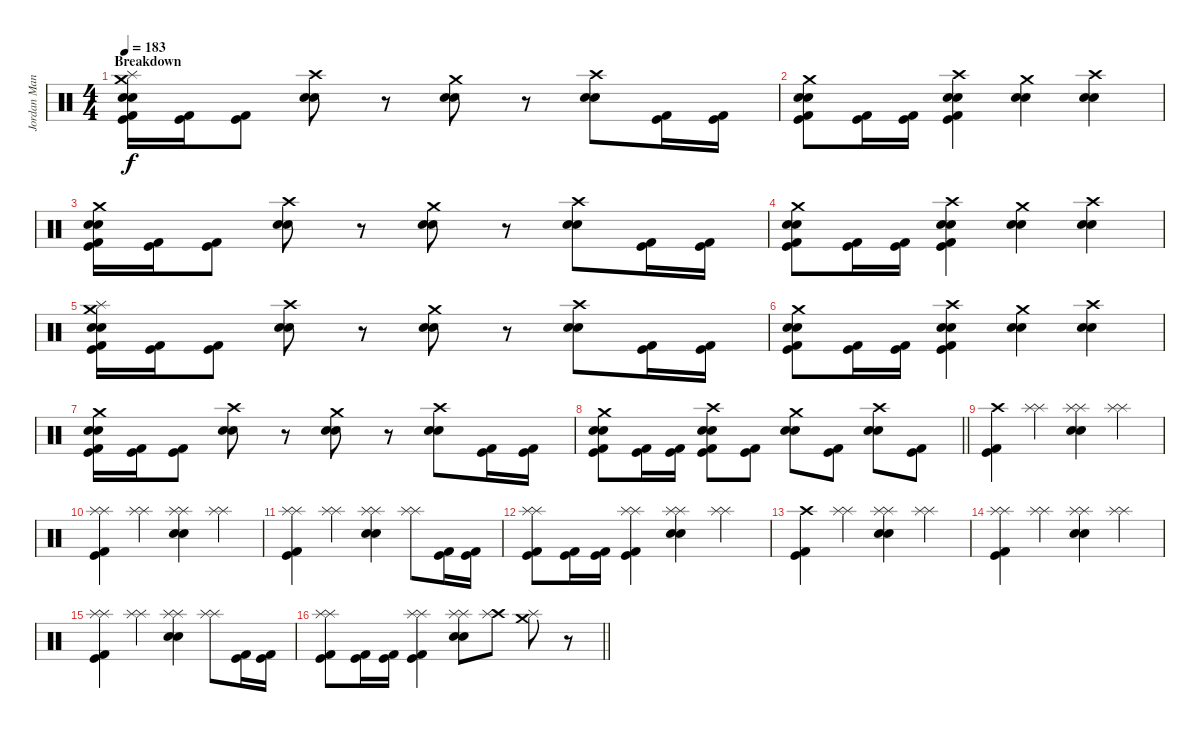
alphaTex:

\track ("Jordan Mancino" "Jordan Man") {instrument percussion}
\staff {score}
\articulation defaults
\ts (4 4)
\section ("" "Breakdown")
\tempo 183
\clef neutral
\ks c
("Splash (hit)" "Crash medium (hit)" "Electric Snare (hit)" "Snare (hit) 2" "Kick (hit)" "Kick (hit) 2").16{dy f} ("Kick (hit)" "Kick (hit) 2").16 ("Kick (hit)" "Kick (hit) 2").8 ("Crash high (hit)" "Electric Snare (hit)" "Snare (hit) 2").8 r.8 ("Crash medium (hit)" "Electric Snare (hit)" "Snare (hit) 2").8 r.8 ("Crash high (hit)" "Electric Snare (hit)" "Snare (hit) 2").8 ("Kick (hit)" "Kick (hit) 2").16 ("Kick (hit)" "Kick (hit) 2").16 |
("Crash medium (hit)" "Electric Snare (hit)" "Snare (hit) 2" "Kick (hit)" "Kick (hit) 2").8 ("Kick (hit)" "Kick (hit) 2").16 ("Kick (hit)" "Kick (hit) 2").16 ("Crash high (hit)" "Electric Snare (hit)" "Snare (hit) 2" "Kick (hit)" "Kick (hit) 2").4 ("Crash medium (hit)" "Electric Snare (hit)" "Snare (hit) 2").4 ("Crash high (hit)" "Electric Snare (hit)" "Snare (hit) 2").4 |
("Crash medium (hit)" "Electric Snare (hit)" "Snare (hit) 2" "Kick (hit)" "Kick (hit) 2").16 ("Kick (hit)" "Kick (hit) 2").16 ("Kick (hit)" "Kick (hit) 2").8 ("Crash high (hit)" "Electric Snare (hit)" "Snare (hit) 2").8 r.8 ("Crash medium (hit)" "Electric Snare (hit)" "Snare (hit) 2").8 r.8 ("Crash high (hit)" "Electric Snare (hit)" "Snare (hit) 2").8 ("Kick (hit)" "Kick (hit) 2").16 ("Kick (hit)" "Kick (hit) 2").16 |
("Crash medium (hit)" "Electric Snare (hit)" "Snare (hit) 2" "Kick (hit)" "Kick (hit) 2").8 ("Kick (hit)" "Kick (hit) 2").16 ("Kick (hit)" "Kick (hit) 2").16 ("Crash high (hit)" "Electric Snare (hit)" "Snare (hit) 2" "Kick (hit)" "Kick (hit) 2").4 ("Crash medium (hit)" "Electric Snare (hit)" "Snare (hit) 2").4 ("Crash high (hit)" "Electric Snare (hit)" "Snare (hit) 2").4 |
("Splash (hit)" "Crash medium (hit)" "Electric Snare (hit)" "Snare (hit) 2" "Kick (hit)" "Kick (hit) 2").16 ("Kick (hit)" "Kick (hit) 2").16 ("Kick (hit)" "Kick (hit) 2").8 ("Crash high (hit)" "Electric Snare (hit)" "Snare (hit) 2").8 r.8 ("Crash medium (hit)" "Electric Snare (hit)" "Snare (hit) 2").8 r.8 ("Crash high (hit)" "Electric Snare (hit)" "Snare (hit) 2").8 ("Kick (hit)" "Kick (hit) 2").16 ("Kick (hit)" "Kick (hit) 2").16 |
("Crash medium (hit)" "Electric Snare (hit)" "Snare (hit) 2" "Kick (hit)" "Kick (hit) 2").8 ("Kick (hit)" "Kick (hit) 2").16 ("Kick (hit)" "Kick (hit) 2").16 ("Crash high (hit)" "Electric Snare (hit)" "Snare (hit) 2" "Kick (hit)" "Kick (hit) 2").4 ("Crash medium (hit)" "Electric Snare (hit)" "Snare (hit) 2").4 ("Crash high (hit)" "Electric Snare (hit)" "Snare (hit) 2").4 |
("Crash medium (hit)" "Electric Snare (hit)" "Snare (hit) 2" "Kick (hit)" "Kick (hit) 2").16 ("Kick (hit)" "Kick (hit) 2").16 ("Kick (hit)" "Kick (hit) 2").8 ("Crash high (hit)" "Electric Snare (hit)" "Snare (hit) 2").8 r.8 ("Crash medium (hit)" "Electric Snare (hit)" "Snare (hit) 2").8 r.8 ("Crash high (hit)" "Electric Snare (hit)" "Snare (hit) 2").8 ("Kick (hit)" "Kick (hit) 2").16 ("Kick (hit)" "Kick (hit) 2").16 |
\barLineRight lightlight
("Crash medium (hit)" "Electric Snare (hit)" "Snare (hit) 2" "Kick (hit)" "Kick (hit) 2").8 ("Kick (hit)" "Kick (hit) 2").16 ("Kick (hit)" "Kick (hit) 2").16 ("Crash high (hit)" "Electric Snare (hit)" "Snare (hit) 2" "Kick (hit)" "Kick (hit) 2").8 ("Kick (hit)" "Kick (hit) 2").8 ("Crash medium (hit)" "Electric Snare (hit)" "Snare (hit) 2").8 ("Kick (hit)" "Kick (hit) 2").8 ("Crash high (hit)" "Electric Snare (hit)" "Snare (hit) 2").8 ("Kick (hit)" "Kick (hit) 2").8 |
("Crash high (hit)" "Kick (hit)" "Kick (hit) 2").4 ("Splash (hit)" "Splash (hit)").4 ("Splash (hit)" "Splash (hit)" "Electric Snare (hit)" "Snare (hit) 2").4 ("Splash (hit)" "Splash (hit)").4 |
("Splash (hit)" "Splash (hit)" "Kick (hit)" "Kick (hit) 2").4 ("Splash (hit)" "Splash (hit)").4 ("Splash (hit)" "Splash (hit)" "Electric Snare (hit)" "Snare (hit) 2").4 ("Splash (hit)" "Splash (hit)").4 |
("Splash (hit)" "Splash (hit)" "Kick (hit)" "Kick (hit) 2").4 ("Splash (hit)" "Splash (hit)").4 ("Splash (hit)" "Splash (hit)" "Electric Snare (hit)" "Snare (hit) 2").4 ("Splash (hit)" "Splash (hit)").8 ("Kick (hit)" "Kick (hit) 2").16 ("Kick (hit)" "Kick (hit) 2").16 |
("Splash (hit)" "Splash (hit)" "Kick (hit)" "Kick (hit) 2").8 ("Kick (hit)" "Kick (hit) 2").16 ("Kick (hit)" "Kick (hit) 2").16 ("Splash (hit)" "Splash (hit)" "Kick (hit)" "Kick (hit) 2").4 ("Splash (hit)" "Splash (hit)" "Electric Snare (hit)" "Snare (hit) 2").4 ("Splash (hit)" "Splash (hit)").4 |
("Crash high (hit)" "Kick (hit)" "Kick (hit) 2").4 ("Splash (hit)" "Splash (hit)").4 ("Splash (hit)" "Splash (hit)" "Electric Snare (hit)" "Snare (hit) 2").4 ("Splash (hit)" "Splash (hit)").4 |
("Splash (hit)" "Splash (hit)" "Kick (hit)" "Kick (hit) 2").4 ("Splash (hit)" "Splash (hit)").4 ("Splash (hit)" "Splash (hit)" "Electric Snare (hit)" "Snare (hit) 2").4 ("Splash (hit)" "Splash (hit)").4 |
("Splash (hit)" "Splash (hit)" "Kick (hit)" "Kick (hit) 2").4 ("Splash (hit)" "Splash (hit)").4 ("Splash (hit)" "Splash (hit)" "Electric Snare (hit)" "Snare (hit) 2").4 ("Splash (hit)" "Splash (hit)").8 ("Kick (hit)" "Kick (hit) 2").16 ("Kick (hit)" "Kick (hit) 2").16 |
\barLineRight lightlight
("Splash (hit)" "Splash (hit)" "Kick (hit)" "Kick (hit) 2").8 ("Kick (hit)" "Kick (hit) 2").16 ("Kick (hit)" "Kick (hit) 2").16 ("Splash (hit)" "Splash (hit)" "Kick (hit)" "Kick (hit) 2").4 ("Splash (hit)" "Splash (hit)" "Electric Snare (hit)" "Snare (hit) 2").8 ("Crash high (hit)" "Splash (hit)").8 ("Crash medium (hit)" "Splash (hit)").8 r.8
